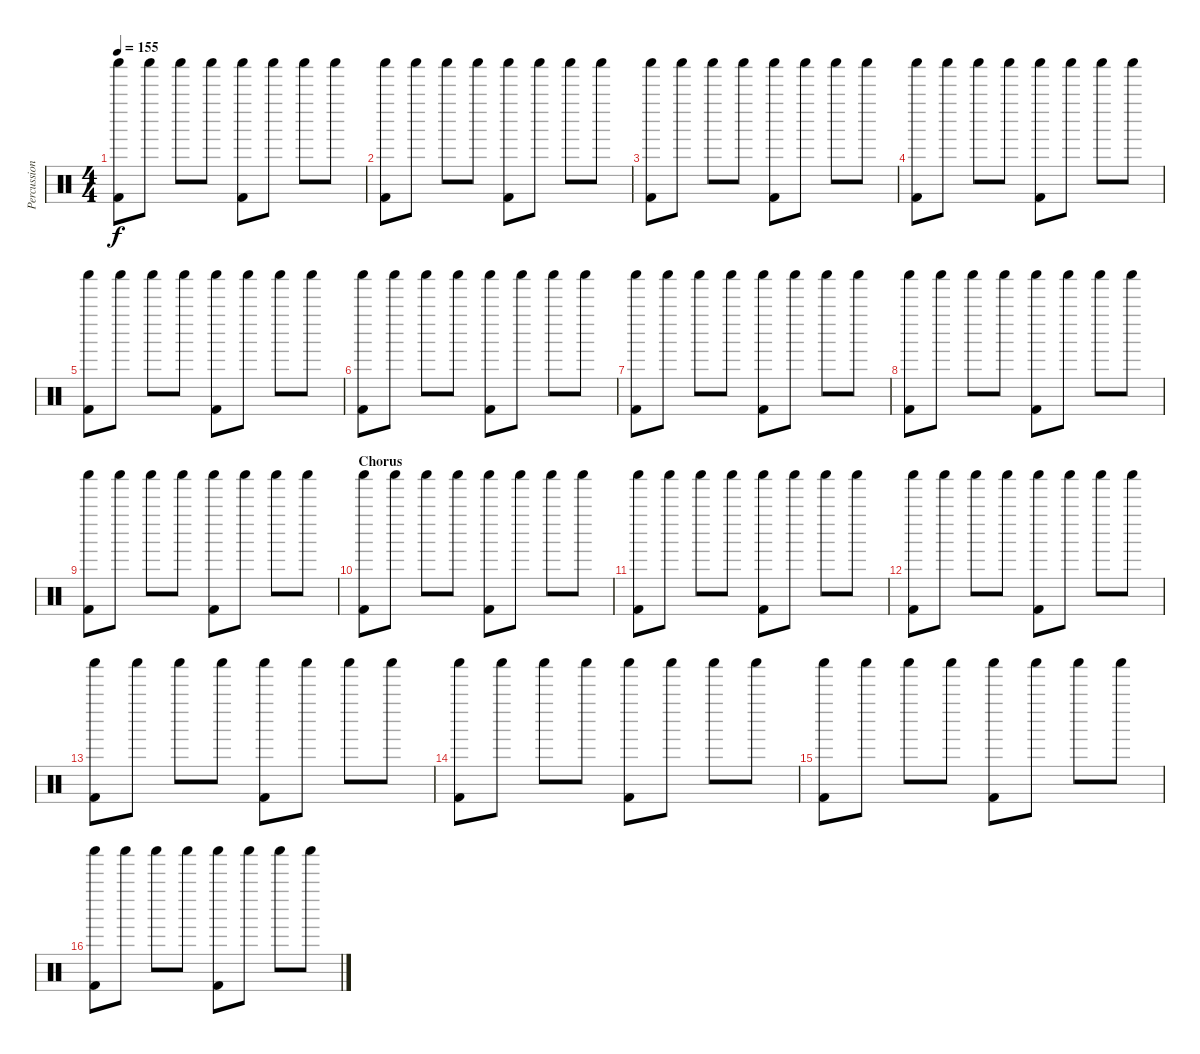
\track ("Percussion" "Percussion") {instrument percussion}
\staff {score}
\articulation defaults
\ts (4 4)
\tempo 155
\clef neutral
\ks c
("Kick (hit) 2" "Shaker (hit)").8{dy f} "Shaker (hit)".8 "Shaker (hit)".8 "Shaker (hit)".8 ("Kick (hit) 2" "Shaker (hit)").8 "Shaker (hit)".8 "Shaker (hit)".8 "Shaker (hit)".8 |
("Kick (hit) 2" "Shaker (hit)").8 "Shaker (hit)".8 "Shaker (hit)".8 "Shaker (hit)".8 ("Kick (hit) 2" "Shaker (hit)").8 "Shaker (hit)".8 "Shaker (hit)".8 "Shaker (hit)".8 |
("Kick (hit) 2" "Shaker (hit)").8 "Shaker (hit)".8 "Shaker (hit)".8 "Shaker (hit)".8 ("Kick (hit) 2" "Shaker (hit)").8 "Shaker (hit)".8 "Shaker (hit)".8 "Shaker (hit)".8 |
("Kick (hit) 2" "Shaker (hit)").8 "Shaker (hit)".8 "Shaker (hit)".8 "Shaker (hit)".8 ("Kick (hit) 2" "Shaker (hit)").8 "Shaker (hit)".8 "Shaker (hit)".8 "Shaker (hit)".8 |
("Kick (hit) 2" "Shaker (hit)").8 "Shaker (hit)".8 "Shaker (hit)".8 "Shaker (hit)".8 ("Kick (hit) 2" "Shaker (hit)").8 "Shaker (hit)".8 "Shaker (hit)".8 "Shaker (hit)".8 |
("Kick (hit) 2" "Shaker (hit)").8 "Shaker (hit)".8 "Shaker (hit)".8 "Shaker (hit)".8 ("Kick (hit) 2" "Shaker (hit)").8 "Shaker (hit)".8 "Shaker (hit)".8 "Shaker (hit)".8 |
("Kick (hit) 2" "Shaker (hit)").8 "Shaker (hit)".8 "Shaker (hit)".8 "Shaker (hit)".8 ("Kick (hit) 2" "Shaker (hit)").8 "Shaker (hit)".8 "Shaker (hit)".8 "Shaker (hit)".8 |
("Kick (hit) 2" "Shaker (hit)").8 "Shaker (hit)".8 "Shaker (hit)".8 "Shaker (hit)".8 ("Kick (hit) 2" "Shaker (hit)").8 "Shaker (hit)".8 "Shaker (hit)".8 "Shaker (hit)".8 |
("Kick (hit) 2" "Shaker (hit)").8 "Shaker (hit)".8 "Shaker (hit)".8 "Shaker (hit)".8 ("Kick (hit) 2" "Shaker (hit)").8 "Shaker (hit)".8 "Shaker (hit)".8 "Shaker (hit)".8 |
\section ("" "Chorus")
("Kick (hit) 2" "Shaker (hit)").8 "Shaker (hit)".8 "Shaker (hit)".8 "Shaker (hit)".8 ("Kick (hit) 2" "Shaker (hit)").8 "Shaker (hit)".8 "Shaker (hit)".8 "Shaker (hit)".8 |
("Kick (hit) 2" "Shaker (hit)").8 "Shaker (hit)".8 "Shaker (hit)".8 "Shaker (hit)".8 ("Kick (hit) 2" "Shaker (hit)").8 "Shaker (hit)".8 "Shaker (hit)".8 "Shaker (hit)".8 |
("Kick (hit) 2" "Shaker (hit)").8 "Shaker (hit)".8 "Shaker (hit)".8 "Shaker (hit)".8 ("Kick (hit) 2" "Shaker (hit)").8 "Shaker (hit)".8 "Shaker (hit)".8 "Shaker (hit)".8 |
("Kick (hit) 2" "Shaker (hit)").8 "Shaker (hit)".8 "Shaker (hit)".8 "Shaker (hit)".8 ("Kick (hit) 2" "Shaker (hit)").8 "Shaker (hit)".8 "Shaker (hit)".8 "Shaker (hit)".8 |
("Kick (hit) 2" "Shaker (hit)").8 "Shaker (hit)".8 "Shaker (hit)".8 "Shaker (hit)".8 ("Kick (hit) 2" "Shaker (hit)").8 "Shaker (hit)".8 "Shaker (hit)".8 "Shaker (hit)".8 |
("Kick (hit) 2" "Shaker (hit)").8 "Shaker (hit)".8 "Shaker (hit)".8 "Shaker (hit)".8 ("Kick (hit) 2" "Shaker (hit)").8 "Shaker (hit)".8 "Shaker (hit)".8 "Shaker (hit)".8 |
("Kick (hit) 2" "Shaker (hit)").8 "Shaker (hit)".8 "Shaker (hit)".8 "Shaker (hit)".8 ("Kick (hit) 2" "Shaker (hit)").8 "Shaker (hit)".8 "Shaker (hit)".8 "Shaker (hit)".8
